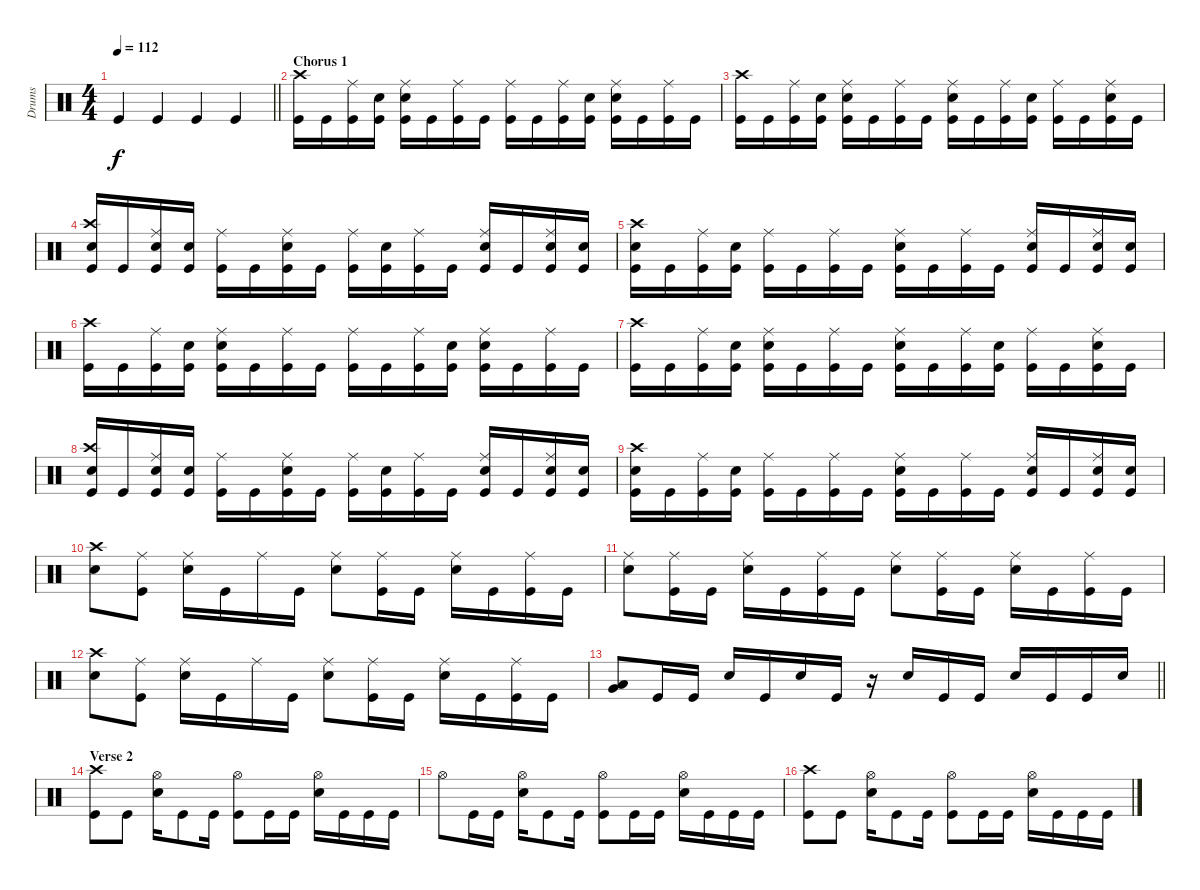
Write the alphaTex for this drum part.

\track ("Drums" "Drums") {instrument percussion}
\staff {score}
\articulation defaults
\ts (4 4)
\tempo 112
\clef neutral
\barLineRight lightlight
\ks c "Kick (hit)".4{dy f} "Kick (hit)".4 "Kick (hit)".4 "Kick (hit)".4
|
\section ("" "Chorus 1")
("Crash high (hit)" "Kick (hit)").16 "Kick (hit)".16 ("Ride (middle)" "Kick (hit)").16 ("Snare (hit) 2" "Kick (hit)").16 ("Ride (middle)" "Snare (hit) 2" "Kick (hit)").16 "Kick (hit)".16 ("Ride (middle)" "Kick (hit)").16 "Kick (hit)".16 ("Ride (middle)" "Kick (hit)").16 "Kick (hit)".16 ("Ride (middle)" "Kick (hit)").16 ("Snare (hit) 2" "Kick (hit)").16 ("Ride (middle)" "Snare (hit) 2" "Kick (hit)").16 "Kick (hit)".16 ("Ride (middle)" "Kick (hit)").16 "Kick (hit)".16 |
("Crash high (hit)" "Kick (hit)").16 "Kick (hit)".16 ("Ride (middle)" "Kick (hit)").16 ("Snare (hit) 2" "Kick (hit)").16 ("Ride (middle)" "Snare (hit) 2" "Kick (hit)").16 "Kick (hit)".16 ("Ride (middle)" "Kick (hit)").16 "Kick (hit)".16 ("Ride (middle)" "Snare (hit) 2" "Kick (hit)").16 "Kick (hit)".16 ("Ride (middle)" "Kick (hit)").16 ("Snare (hit) 2" "Kick (hit)").16 ("Ride (middle)" "Kick (hit)").16 "Kick (hit)".16 ("Ride (middle)" "Snare (hit) 2" "Kick (hit)").16 "Kick (hit)".16 |
("Crash high (hit)" "Snare (hit) 2" "Kick (hit)").16 "Kick (hit)".16 ("Ride (middle)" "Snare (hit) 2" "Kick (hit)").16 ("Snare (hit) 2" "Kick (hit)").16 ("Ride (middle)" "Kick (hit)").16 "Kick (hit)".16 ("Ride (middle)" "Snare (hit) 2" "Kick (hit)").16 "Kick (hit)".16 ("Ride (middle)" "Kick (hit)").16 ("Snare (hit) 2" "Kick (hit)").16 ("Ride (middle)" "Kick (hit)").16 "Kick (hit)".16 ("Ride (middle)" "Snare (hit) 2" "Kick (hit)").16 "Kick (hit)".16 ("Ride (middle)" "Snare (hit) 2" "Kick (hit)").16 ("Snare (hit) 2" "Kick (hit)").16 |
("Crash high (hit)" "Snare (hit) 2" "Kick (hit)").16 "Kick (hit)".16 ("Ride (middle)" "Kick (hit)").16 ("Snare (hit) 2" "Kick (hit)").16 ("Ride (middle)" "Kick (hit)").16 "Kick (hit)".16 ("Ride (middle)" "Kick (hit)").16 "Kick (hit)".16 ("Ride (middle)" "Snare (hit) 2" "Kick (hit)").16 "Kick (hit)".16 ("Ride (middle)" "Kick (hit)").16 "Kick (hit)".16 ("Ride (middle)" "Snare (hit) 2" "Kick (hit)").16 "Kick (hit)".16 ("Ride (middle)" "Snare (hit) 2" "Kick (hit)").16 ("Snare (hit) 2" "Kick (hit)").16 |
("Crash high (hit)" "Kick (hit)").16 "Kick (hit)".16 ("Ride (middle)" "Kick (hit)").16 ("Snare (hit) 2" "Kick (hit)").16 ("Ride (middle)" "Snare (hit) 2" "Kick (hit)").16 "Kick (hit)".16 ("Ride (middle)" "Kick (hit)").16 "Kick (hit)".16 ("Ride (middle)" "Kick (hit)").16 "Kick (hit)".16 ("Ride (middle)" "Kick (hit)").16 ("Snare (hit) 2" "Kick (hit)").16 ("Ride (middle)" "Snare (hit) 2" "Kick (hit)").16 "Kick (hit)".16 ("Ride (middle)" "Kick (hit)").16 "Kick (hit)".16 |
("Crash high (hit)" "Kick (hit)").16 "Kick (hit)".16 ("Ride (middle)" "Kick (hit)").16 ("Snare (hit) 2" "Kick (hit)").16 ("Ride (middle)" "Snare (hit) 2" "Kick (hit)").16 "Kick (hit)".16 ("Ride (middle)" "Kick (hit)").16 "Kick (hit)".16 ("Ride (middle)" "Snare (hit) 2" "Kick (hit)").16 "Kick (hit)".16 ("Ride (middle)" "Kick (hit)").16 ("Snare (hit) 2" "Kick (hit)").16 ("Ride (middle)" "Kick (hit)").16 "Kick (hit)".16 ("Ride (middle)" "Snare (hit) 2" "Kick (hit)").16 "Kick (hit)".16 |
("Crash high (hit)" "Snare (hit) 2" "Kick (hit)").16 "Kick (hit)".16 ("Ride (middle)" "Snare (hit) 2" "Kick (hit)").16 ("Snare (hit) 2" "Kick (hit)").16 ("Ride (middle)" "Kick (hit)").16 "Kick (hit)".16 ("Ride (middle)" "Snare (hit) 2" "Kick (hit)").16 "Kick (hit)".16 ("Ride (middle)" "Kick (hit)").16 ("Snare (hit) 2" "Kick (hit)").16 ("Ride (middle)" "Kick (hit)").16 "Kick (hit)".16 ("Ride (middle)" "Snare (hit) 2" "Kick (hit)").16 "Kick (hit)".16 ("Ride (middle)" "Snare (hit) 2" "Kick (hit)").16 ("Snare (hit) 2" "Kick (hit)").16 |
("Crash high (hit)" "Snare (hit) 2" "Kick (hit)").16 "Kick (hit)".16 ("Ride (middle)" "Kick (hit)").16 ("Snare (hit) 2" "Kick (hit)").16 ("Ride (middle)" "Kick (hit)").16 "Kick (hit)".16 ("Ride (middle)" "Kick (hit)").16 "Kick (hit)".16 ("Ride (middle)" "Snare (hit) 2" "Kick (hit)").16 "Kick (hit)".16 ("Ride (middle)" "Kick (hit)").16 "Kick (hit)".16 ("Ride (middle)" "Snare (hit) 2" "Kick (hit)").16 "Kick (hit)".16 ("Ride (middle)" "Snare (hit) 2" "Kick (hit)").16 ("Snare (hit) 2" "Kick (hit)").16 |
("Snare (hit) 2" "Crash high (hit)").8 ("Ride (middle)" "Kick (hit)").8 ("Ride (middle)" "Snare (hit) 2").16 "Kick (hit)".16 "Ride (middle)".16 "Kick (hit)".16 ("Snare (hit) 2" "Ride (middle)").8 ("Ride (middle)" "Kick (hit)").16 "Kick (hit)".16 ("Ride (middle)" "Snare (hit) 2").16 "Kick (hit)".16 ("Ride (middle)" "Kick (hit)").16 "Kick (hit)".16 |
("Ride (middle)" "Snare (hit) 2").8 ("Ride (middle)" "Kick (hit)").16 "Kick (hit)".16 ("Ride (middle)" "Snare (hit) 2").16 "Kick (hit)".16 ("Ride (middle)" "Kick (hit)").16 "Kick (hit)".16 ("Ride (middle)" "Snare (hit) 2").8 ("Ride (middle)" "Kick (hit)").16 "Kick (hit)".16 ("Ride (middle)" "Snare (hit) 2").16 "Kick (hit)".16 ("Ride (middle)" "Kick (hit)").16 "Kick (hit)".16 |
("Snare (hit) 2" "Crash high (hit)").8 ("Ride (middle)" "Kick (hit)").8 ("Ride (middle)" "Snare (hit) 2").16 "Kick (hit)".16 "Ride (middle)".16 "Kick (hit)".16 ("Snare (hit) 2" "Ride (middle)").8 ("Ride (middle)" "Kick (hit)").16 "Kick (hit)".16 ("Ride (middle)" "Snare (hit) 2").16 "Kick (hit)".16 ("Ride (middle)" "Kick (hit)").16 "Kick (hit)".16 |
\barLineRight lightlight
("Low Tom (hit)" "Very Low Tom (hit)").8 "Kick (hit)".16 "Kick (hit)".16 "Snare (hit) 2".16 "Kick (hit)".16 "Snare (hit) 2".16 "Kick (hit)".16 r.16 "Snare (hit) 2".16 "Kick (hit)".16 "Kick (hit)".16 "Snare (hit) 2".16 "Kick (hit)".16 "Kick (hit)".16 "Snare (hit) 2".16 |
\section ("" "Verse 2")
("Kick (hit)" "Crash high (hit)").8 "Kick (hit)".8 ("Hi-Hat (open)" "Snare (hit) 2").16 "Kick (hit)".8 "Kick (hit)".16 ("Hi-Hat (open)" "Kick (hit)").8 "Kick (hit)".16 "Kick (hit)".16 ("Hi-Hat (open)" "Snare (hit) 2").16 "Kick (hit)".16 "Kick (hit)".16 "Kick (hit)".16 |
"Hi-Hat (open)".8 "Kick (hit)".16 "Kick (hit)".16 ("Snare (hit) 2" "Hi-Hat (open)").16 "Kick (hit)".8 "Kick (hit)".16 ("Kick (hit)" "Hi-Hat (open)").8 "Kick (hit)".16 "Kick (hit)".16 ("Snare (hit) 2" "Hi-Hat (open)").16 "Kick (hit)".16 "Kick (hit)".16 "Kick (hit)".16 |
("Kick (hit)" "Crash high (hit)").8 "Kick (hit)".8 ("Hi-Hat (open)" "Snare (hit) 2").16 "Kick (hit)".8 "Kick (hit)".16 ("Hi-Hat (open)" "Kick (hit)").8 "Kick (hit)".16 "Kick (hit)".16 ("Hi-Hat (open)" "Snare (hit) 2").16 "Kick (hit)".16 "Kick (hit)".16 "Kick (hit)".16
